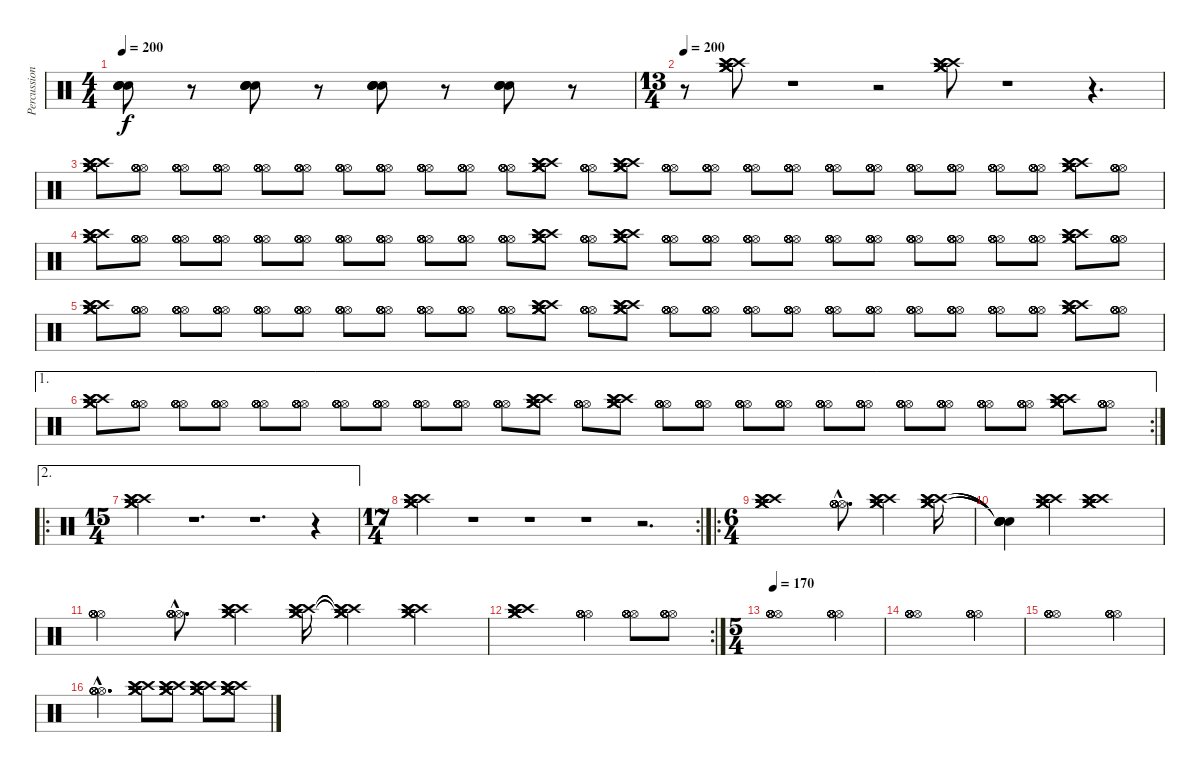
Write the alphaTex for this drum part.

\track ("Percussion" "Percussion") {instrument percussion}
\staff {score}
\articulation defaults
\ts (4 4)
\tempo 200
\clef neutral
\ks c
("Snare (hit) 2" "Snare (hit) 2" "Snare (hit) 2" "Snare (hit) 2").8{dy f} r.8 ("Snare (hit) 2" "Snare (hit) 2" "Snare (hit) 2" "Snare (hit) 2").8 r.8 ("Snare (hit) 2" "Snare (hit) 2" "Snare (hit) 2" "Snare (hit) 2").8 r.8 ("Snare (hit) 2" "Snare (hit) 2" "Snare (hit) 2" "Snare (hit) 2").8 r.8 |
\ts (13 4)
\tempo 200
r.8 ("Crash high (hit)" "Crash high (hit)" "Crash high (hit)" "Crash medium (hit)" "Crash medium (hit)" "Crash medium (hit)").8 r.1 r.2 ("Crash high (hit)" "Crash high (hit)" "Crash high (hit)" "Crash medium (hit)" "Crash medium (hit)" "Crash medium (hit)").8 r.1 r.4{d} |
("Crash high (hit)" "Crash high (hit)" "Crash high (hit)" "Crash medium (hit)" "Crash medium (hit)" "Crash medium (hit)").8 ("Hi-Hat (open)" "Hi-Hat (open)" "Hi-Hat (open)" "Hi-Hat (open)" "Hi-Hat (open)" "Hi-Hat (open)").8 ("Hi-Hat (open)" "Hi-Hat (open)" "Hi-Hat (open)" "Hi-Hat (open)" "Hi-Hat (open)" "Hi-Hat (open)").8 ("Hi-Hat (open)" "Hi-Hat (open)" "Hi-Hat (open)" "Hi-Hat (open)" "Hi-Hat (open)" "Hi-Hat (open)").8 ("Hi-Hat (open)" "Hi-Hat (open)" "Hi-Hat (open)" "Hi-Hat (open)" "Hi-Hat (open)" "Hi-Hat (open)").8 ("Hi-Hat (open)" "Hi-Hat (open)" "Hi-Hat (open)" "Hi-Hat (open)" "Hi-Hat (open)" "Hi-Hat (open)").8 ("Hi-Hat (open)" "Hi-Hat (open)" "Hi-Hat (open)" "Hi-Hat (open)" "Hi-Hat (open)" "Hi-Hat (open)").8 ("Hi-Hat (open)" "Hi-Hat (open)" "Hi-Hat (open)" "Hi-Hat (open)" "Hi-Hat (open)" "Hi-Hat (open)").8 ("Hi-Hat (open)" "Hi-Hat (open)" "Hi-Hat (open)" "Hi-Hat (open)" "Hi-Hat (open)" "Hi-Hat (open)").8 ("Hi-Hat (open)" "Hi-Hat (open)" "Hi-Hat (open)" "Hi-Hat (open)" "Hi-Hat (open)" "Hi-Hat (open)").8 ("Hi-Hat (open)" "Hi-Hat (open)" "Hi-Hat (open)" "Hi-Hat (open)" "Hi-Hat (open)" "Hi-Hat (open)").8 ("Crash high (hit)" "Crash high (hit)" "Crash high (hit)" "Crash medium (hit)" "Crash medium (hit)" "Crash medium (hit)").8 ("Hi-Hat (open)" "Hi-Hat (open)" "Hi-Hat (open)" "Hi-Hat (open)" "Hi-Hat (open)" "Hi-Hat (open)").8 ("Crash high (hit)" "Crash high (hit)" "Crash high (hit)" "Crash medium (hit)" "Crash medium (hit)" "Crash medium (hit)").8 ("Hi-Hat (open)" "Hi-Hat (open)" "Hi-Hat (open)" "Hi-Hat (open)" "Hi-Hat (open)" "Hi-Hat (open)").8 ("Hi-Hat (open)" "Hi-Hat (open)" "Hi-Hat (open)" "Hi-Hat (open)" "Hi-Hat (open)" "Hi-Hat (open)").8 ("Hi-Hat (open)" "Hi-Hat (open)" "Hi-Hat (open)" "Hi-Hat (open)" "Hi-Hat (open)" "Hi-Hat (open)").8 ("Hi-Hat (open)" "Hi-Hat (open)" "Hi-Hat (open)" "Hi-Hat (open)" "Hi-Hat (open)" "Hi-Hat (open)").8 ("Hi-Hat (open)" "Hi-Hat (open)" "Hi-Hat (open)" "Hi-Hat (open)" "Hi-Hat (open)" "Hi-Hat (open)").8 ("Hi-Hat (open)" "Hi-Hat (open)" "Hi-Hat (open)" "Hi-Hat (open)" "Hi-Hat (open)" "Hi-Hat (open)").8 ("Hi-Hat (open)" "Hi-Hat (open)" "Hi-Hat (open)" "Hi-Hat (open)" "Hi-Hat (open)" "Hi-Hat (open)").8 ("Hi-Hat (open)" "Hi-Hat (open)" "Hi-Hat (open)" "Hi-Hat (open)" "Hi-Hat (open)" "Hi-Hat (open)").8 ("Hi-Hat (open)" "Hi-Hat (open)" "Hi-Hat (open)" "Hi-Hat (open)" "Hi-Hat (open)" "Hi-Hat (open)").8 ("Hi-Hat (open)" "Hi-Hat (open)" "Hi-Hat (open)" "Hi-Hat (open)" "Hi-Hat (open)" "Hi-Hat (open)").8 ("Crash high (hit)" "Crash high (hit)" "Crash high (hit)" "Crash medium (hit)" "Crash medium (hit)" "Crash medium (hit)").8 ("Hi-Hat (open)" "Hi-Hat (open)" "Hi-Hat (open)" "Hi-Hat (open)" "Hi-Hat (open)" "Hi-Hat (open)").8 |
("Crash high (hit)" "Crash high (hit)" "Crash high (hit)" "Crash medium (hit)" "Crash medium (hit)" "Crash medium (hit)").8 ("Hi-Hat (open)" "Hi-Hat (open)" "Hi-Hat (open)" "Hi-Hat (open)" "Hi-Hat (open)" "Hi-Hat (open)").8 ("Hi-Hat (open)" "Hi-Hat (open)" "Hi-Hat (open)" "Hi-Hat (open)" "Hi-Hat (open)" "Hi-Hat (open)").8 ("Hi-Hat (open)" "Hi-Hat (open)" "Hi-Hat (open)" "Hi-Hat (open)" "Hi-Hat (open)" "Hi-Hat (open)").8 ("Hi-Hat (open)" "Hi-Hat (open)" "Hi-Hat (open)" "Hi-Hat (open)" "Hi-Hat (open)" "Hi-Hat (open)").8 ("Hi-Hat (open)" "Hi-Hat (open)" "Hi-Hat (open)" "Hi-Hat (open)" "Hi-Hat (open)" "Hi-Hat (open)").8 ("Hi-Hat (open)" "Hi-Hat (open)" "Hi-Hat (open)" "Hi-Hat (open)" "Hi-Hat (open)" "Hi-Hat (open)").8 ("Hi-Hat (open)" "Hi-Hat (open)" "Hi-Hat (open)" "Hi-Hat (open)" "Hi-Hat (open)" "Hi-Hat (open)").8 ("Hi-Hat (open)" "Hi-Hat (open)" "Hi-Hat (open)" "Hi-Hat (open)" "Hi-Hat (open)" "Hi-Hat (open)").8 ("Hi-Hat (open)" "Hi-Hat (open)" "Hi-Hat (open)" "Hi-Hat (open)" "Hi-Hat (open)" "Hi-Hat (open)").8 ("Hi-Hat (open)" "Hi-Hat (open)" "Hi-Hat (open)" "Hi-Hat (open)" "Hi-Hat (open)" "Hi-Hat (open)").8 ("Crash high (hit)" "Crash high (hit)" "Crash high (hit)" "Crash medium (hit)" "Crash medium (hit)" "Crash medium (hit)").8 ("Hi-Hat (open)" "Hi-Hat (open)" "Hi-Hat (open)" "Hi-Hat (open)" "Hi-Hat (open)" "Hi-Hat (open)").8 ("Crash high (hit)" "Crash high (hit)" "Crash high (hit)" "Crash medium (hit)" "Crash medium (hit)" "Crash medium (hit)").8 ("Hi-Hat (open)" "Hi-Hat (open)" "Hi-Hat (open)" "Hi-Hat (open)" "Hi-Hat (open)" "Hi-Hat (open)").8 ("Hi-Hat (open)" "Hi-Hat (open)" "Hi-Hat (open)" "Hi-Hat (open)" "Hi-Hat (open)" "Hi-Hat (open)").8 ("Hi-Hat (open)" "Hi-Hat (open)" "Hi-Hat (open)" "Hi-Hat (open)" "Hi-Hat (open)" "Hi-Hat (open)").8 ("Hi-Hat (open)" "Hi-Hat (open)" "Hi-Hat (open)" "Hi-Hat (open)" "Hi-Hat (open)" "Hi-Hat (open)").8 ("Hi-Hat (open)" "Hi-Hat (open)" "Hi-Hat (open)" "Hi-Hat (open)" "Hi-Hat (open)" "Hi-Hat (open)").8 ("Hi-Hat (open)" "Hi-Hat (open)" "Hi-Hat (open)" "Hi-Hat (open)" "Hi-Hat (open)" "Hi-Hat (open)").8 ("Hi-Hat (open)" "Hi-Hat (open)" "Hi-Hat (open)" "Hi-Hat (open)" "Hi-Hat (open)" "Hi-Hat (open)").8 ("Hi-Hat (open)" "Hi-Hat (open)" "Hi-Hat (open)" "Hi-Hat (open)" "Hi-Hat (open)" "Hi-Hat (open)").8 ("Hi-Hat (open)" "Hi-Hat (open)" "Hi-Hat (open)" "Hi-Hat (open)" "Hi-Hat (open)" "Hi-Hat (open)").8 ("Hi-Hat (open)" "Hi-Hat (open)" "Hi-Hat (open)" "Hi-Hat (open)" "Hi-Hat (open)" "Hi-Hat (open)").8 ("Crash high (hit)" "Crash high (hit)" "Crash high (hit)" "Crash medium (hit)" "Crash medium (hit)" "Crash medium (hit)").8 ("Hi-Hat (open)" "Hi-Hat (open)" "Hi-Hat (open)" "Hi-Hat (open)" "Hi-Hat (open)" "Hi-Hat (open)").8 |
("Crash high (hit)" "Crash high (hit)" "Crash high (hit)" "Crash medium (hit)" "Crash medium (hit)" "Crash medium (hit)").8 ("Hi-Hat (open)" "Hi-Hat (open)" "Hi-Hat (open)" "Hi-Hat (open)" "Hi-Hat (open)" "Hi-Hat (open)").8 ("Hi-Hat (open)" "Hi-Hat (open)" "Hi-Hat (open)" "Hi-Hat (open)" "Hi-Hat (open)" "Hi-Hat (open)").8 ("Hi-Hat (open)" "Hi-Hat (open)" "Hi-Hat (open)" "Hi-Hat (open)" "Hi-Hat (open)" "Hi-Hat (open)").8 ("Hi-Hat (open)" "Hi-Hat (open)" "Hi-Hat (open)" "Hi-Hat (open)" "Hi-Hat (open)" "Hi-Hat (open)").8 ("Hi-Hat (open)" "Hi-Hat (open)" "Hi-Hat (open)" "Hi-Hat (open)" "Hi-Hat (open)" "Hi-Hat (open)").8 ("Hi-Hat (open)" "Hi-Hat (open)" "Hi-Hat (open)" "Hi-Hat (open)" "Hi-Hat (open)" "Hi-Hat (open)").8 ("Hi-Hat (open)" "Hi-Hat (open)" "Hi-Hat (open)" "Hi-Hat (open)" "Hi-Hat (open)" "Hi-Hat (open)").8 ("Hi-Hat (open)" "Hi-Hat (open)" "Hi-Hat (open)" "Hi-Hat (open)" "Hi-Hat (open)" "Hi-Hat (open)").8 ("Hi-Hat (open)" "Hi-Hat (open)" "Hi-Hat (open)" "Hi-Hat (open)" "Hi-Hat (open)" "Hi-Hat (open)").8 ("Hi-Hat (open)" "Hi-Hat (open)" "Hi-Hat (open)" "Hi-Hat (open)" "Hi-Hat (open)" "Hi-Hat (open)").8 ("Crash high (hit)" "Crash high (hit)" "Crash high (hit)" "Crash medium (hit)" "Crash medium (hit)" "Crash medium (hit)").8 ("Hi-Hat (open)" "Hi-Hat (open)" "Hi-Hat (open)" "Hi-Hat (open)" "Hi-Hat (open)" "Hi-Hat (open)").8 ("Crash high (hit)" "Crash high (hit)" "Crash high (hit)" "Crash medium (hit)" "Crash medium (hit)" "Crash medium (hit)").8 ("Hi-Hat (open)" "Hi-Hat (open)" "Hi-Hat (open)" "Hi-Hat (open)" "Hi-Hat (open)" "Hi-Hat (open)").8 ("Hi-Hat (open)" "Hi-Hat (open)" "Hi-Hat (open)" "Hi-Hat (open)" "Hi-Hat (open)" "Hi-Hat (open)").8 ("Hi-Hat (open)" "Hi-Hat (open)" "Hi-Hat (open)" "Hi-Hat (open)" "Hi-Hat (open)" "Hi-Hat (open)").8 ("Hi-Hat (open)" "Hi-Hat (open)" "Hi-Hat (open)" "Hi-Hat (open)" "Hi-Hat (open)" "Hi-Hat (open)").8 ("Hi-Hat (open)" "Hi-Hat (open)" "Hi-Hat (open)" "Hi-Hat (open)" "Hi-Hat (open)" "Hi-Hat (open)").8 ("Hi-Hat (open)" "Hi-Hat (open)" "Hi-Hat (open)" "Hi-Hat (open)" "Hi-Hat (open)" "Hi-Hat (open)").8 ("Hi-Hat (open)" "Hi-Hat (open)" "Hi-Hat (open)" "Hi-Hat (open)" "Hi-Hat (open)" "Hi-Hat (open)").8 ("Hi-Hat (open)" "Hi-Hat (open)" "Hi-Hat (open)" "Hi-Hat (open)" "Hi-Hat (open)" "Hi-Hat (open)").8 ("Hi-Hat (open)" "Hi-Hat (open)" "Hi-Hat (open)" "Hi-Hat (open)" "Hi-Hat (open)" "Hi-Hat (open)").8 ("Hi-Hat (open)" "Hi-Hat (open)" "Hi-Hat (open)" "Hi-Hat (open)" "Hi-Hat (open)" "Hi-Hat (open)").8 ("Crash high (hit)" "Crash high (hit)" "Crash high (hit)" "Crash medium (hit)" "Crash medium (hit)" "Crash medium (hit)").8 ("Hi-Hat (open)" "Hi-Hat (open)" "Hi-Hat (open)" "Hi-Hat (open)" "Hi-Hat (open)" "Hi-Hat (open)").8 |
\ae 1
\rc 2
("Crash high (hit)" "Crash high (hit)" "Crash high (hit)" "Crash medium (hit)" "Crash medium (hit)" "Crash medium (hit)").8 ("Hi-Hat (open)" "Hi-Hat (open)" "Hi-Hat (open)" "Hi-Hat (open)" "Hi-Hat (open)" "Hi-Hat (open)").8 ("Hi-Hat (open)" "Hi-Hat (open)" "Hi-Hat (open)" "Hi-Hat (open)" "Hi-Hat (open)" "Hi-Hat (open)").8 ("Hi-Hat (open)" "Hi-Hat (open)" "Hi-Hat (open)" "Hi-Hat (open)" "Hi-Hat (open)" "Hi-Hat (open)").8 ("Hi-Hat (open)" "Hi-Hat (open)" "Hi-Hat (open)" "Hi-Hat (open)" "Hi-Hat (open)" "Hi-Hat (open)").8 ("Hi-Hat (open)" "Hi-Hat (open)" "Hi-Hat (open)" "Hi-Hat (open)" "Hi-Hat (open)" "Hi-Hat (open)").8 ("Hi-Hat (open)" "Hi-Hat (open)" "Hi-Hat (open)" "Hi-Hat (open)" "Hi-Hat (open)" "Hi-Hat (open)").8 ("Hi-Hat (open)" "Hi-Hat (open)" "Hi-Hat (open)" "Hi-Hat (open)" "Hi-Hat (open)" "Hi-Hat (open)").8 ("Hi-Hat (open)" "Hi-Hat (open)" "Hi-Hat (open)" "Hi-Hat (open)" "Hi-Hat (open)" "Hi-Hat (open)").8 ("Hi-Hat (open)" "Hi-Hat (open)" "Hi-Hat (open)" "Hi-Hat (open)" "Hi-Hat (open)" "Hi-Hat (open)").8 ("Hi-Hat (open)" "Hi-Hat (open)" "Hi-Hat (open)" "Hi-Hat (open)" "Hi-Hat (open)" "Hi-Hat (open)").8 ("Crash high (hit)" "Crash high (hit)" "Crash high (hit)" "Crash medium (hit)" "Crash medium (hit)" "Crash medium (hit)").8 ("Hi-Hat (open)" "Hi-Hat (open)" "Hi-Hat (open)" "Hi-Hat (open)" "Hi-Hat (open)" "Hi-Hat (open)").8 ("Crash high (hit)" "Crash high (hit)" "Crash high (hit)" "Crash medium (hit)" "Crash medium (hit)" "Crash medium (hit)").8 ("Hi-Hat (open)" "Hi-Hat (open)" "Hi-Hat (open)" "Hi-Hat (open)" "Hi-Hat (open)" "Hi-Hat (open)").8 ("Hi-Hat (open)" "Hi-Hat (open)" "Hi-Hat (open)" "Hi-Hat (open)" "Hi-Hat (open)" "Hi-Hat (open)").8 ("Hi-Hat (open)" "Hi-Hat (open)" "Hi-Hat (open)" "Hi-Hat (open)" "Hi-Hat (open)" "Hi-Hat (open)").8 ("Hi-Hat (open)" "Hi-Hat (open)" "Hi-Hat (open)" "Hi-Hat (open)" "Hi-Hat (open)" "Hi-Hat (open)").8 ("Hi-Hat (open)" "Hi-Hat (open)" "Hi-Hat (open)" "Hi-Hat (open)" "Hi-Hat (open)" "Hi-Hat (open)").8 ("Hi-Hat (open)" "Hi-Hat (open)" "Hi-Hat (open)" "Hi-Hat (open)" "Hi-Hat (open)" "Hi-Hat (open)").8 ("Hi-Hat (open)" "Hi-Hat (open)" "Hi-Hat (open)" "Hi-Hat (open)" "Hi-Hat (open)" "Hi-Hat (open)").8 ("Hi-Hat (open)" "Hi-Hat (open)" "Hi-Hat (open)" "Hi-Hat (open)" "Hi-Hat (open)" "Hi-Hat (open)").8 ("Hi-Hat (open)" "Hi-Hat (open)" "Hi-Hat (open)" "Hi-Hat (open)" "Hi-Hat (open)" "Hi-Hat (open)").8 ("Hi-Hat (open)" "Hi-Hat (open)" "Hi-Hat (open)" "Hi-Hat (open)" "Hi-Hat (open)" "Hi-Hat (open)").8 ("Crash high (hit)" "Crash high (hit)" "Crash high (hit)" "Crash medium (hit)" "Crash medium (hit)" "Crash medium (hit)").8 ("Hi-Hat (open)" "Hi-Hat (open)" "Hi-Hat (open)" "Hi-Hat (open)" "Hi-Hat (open)" "Hi-Hat (open)").8 |
\ae 2
\ro
\ts (15 4)
("Crash high (hit)" "Crash high (hit)" "Crash high (hit)" "Crash medium (hit)" "Crash medium (hit)" "Crash medium (hit)").2 r.1{d} r.1{d} r.4 |
\rc 2
\ts (17 4)
("Crash high (hit)" "Crash high (hit)" "Crash high (hit)" "Crash medium (hit)" "Crash medium (hit)" "Crash medium (hit)").2 r.1 r.1 r.1 r.2{d} |
\ro
\ts (6 4)
("Crash high (hit)" "Crash high (hit)" "Crash high (hit)" "Crash medium (hit)" "Crash medium (hit)" "Crash medium (hit)").1 ("Hi-Hat (open)"{hac} "Hi-Hat (open)"{hac} "Hi-Hat (open)"{hac} "Hi-Hat (open)"{hac} "Hi-Hat (open)"{hac} "Hi-Hat (open)"{hac}).8{d} ("Crash high (hit)" "Crash high (hit)" "Crash high (hit)" "Crash medium (hit)" "Crash medium (hit)" "Crash medium (hit)").4 ("Crash high (hit)" "Crash high (hit)" "Crash high (hit)" "Crash medium (hit)" "Crash medium (hit)" "Crash medium (hit)").16 |
("Snare (hit)"{t} "Snare (hit)"{t} "Snare (hit)"{t} "Snare (hit)"{t} "Snare (hit)"{t} "Snare (hit)"{t}).4 ("Crash high (hit)" "Crash high (hit)" "Crash high (hit)" "Crash medium (hit)" "Crash medium (hit)" "Crash medium (hit)").4 ("Crash high (hit)" "Crash high (hit)" "Crash high (hit)" "Crash medium (hit)" "Crash medium (hit)" "Crash medium (hit)").1 |
("Hi-Hat (open)" "Hi-Hat (open)" "Hi-Hat (open)" "Hi-Hat (open)" "Hi-Hat (open)" "Hi-Hat (open)").2 ("Hi-Hat (open)"{hac} "Hi-Hat (open)"{hac} "Hi-Hat (open)"{hac} "Hi-Hat (open)"{hac} "Hi-Hat (open)"{hac} "Hi-Hat (open)"{hac}).8{d} ("Crash high (hit)" "Crash high (hit)" "Crash high (hit)" "Crash medium (hit)" "Crash medium (hit)" "Crash medium (hit)").4 ("Crash high (hit)" "Crash high (hit)" "Crash high (hit)" "Crash medium (hit)" "Crash medium (hit)" "Crash medium (hit)").16 ("Crash high (hit)"{t} "Crash high (hit)"{t} "Crash high (hit)"{t} "Crash medium (hit)"{t} "Crash medium (hit)"{t} "Crash medium (hit)"{t}).4 ("Crash high (hit)" "Crash high (hit)" "Crash high (hit)" "Crash medium (hit)" "Crash medium (hit)" "Crash medium (hit)").4 |
\rc 2
("Crash high (hit)" "Crash high (hit)" "Crash high (hit)" "Crash medium (hit)" "Crash medium (hit)" "Crash medium (hit)").1 ("Hi-Hat (open)" "Hi-Hat (open)" "Hi-Hat (open)" "Hi-Hat (open)" "Hi-Hat (open)" "Hi-Hat (open)").4 ("Hi-Hat (open)" "Hi-Hat (open)" "Hi-Hat (open)" "Hi-Hat (open)" "Hi-Hat (open)" "Hi-Hat (open)").8 ("Hi-Hat (open)" "Hi-Hat (open)" "Hi-Hat (open)" "Hi-Hat (open)" "Hi-Hat (open)" "Hi-Hat (open)").8 |
\ts (5 4)
\tempo 170
("Hi-Hat (open)" "Hi-Hat (open)" "Hi-Hat (open)" "Hi-Hat (open)" "Hi-Hat (open)" "Hi-Hat (open)").1 ("Hi-Hat (open)" "Hi-Hat (open)" "Hi-Hat (open)" "Hi-Hat (open)" "Hi-Hat (open)" "Hi-Hat (open)").4 |
("Hi-Hat (open)" "Hi-Hat (open)" "Hi-Hat (open)" "Hi-Hat (open)" "Hi-Hat (open)" "Hi-Hat (open)").1 ("Hi-Hat (open)" "Hi-Hat (open)" "Hi-Hat (open)" "Hi-Hat (open)" "Hi-Hat (open)" "Hi-Hat (open)").4 |
("Hi-Hat (open)" "Hi-Hat (open)" "Hi-Hat (open)" "Hi-Hat (open)" "Hi-Hat (open)" "Hi-Hat (open)").1 ("Hi-Hat (open)" "Hi-Hat (open)" "Hi-Hat (open)" "Hi-Hat (open)" "Hi-Hat (open)" "Hi-Hat (open)").4 |
("Hi-Hat (open)"{hac} "Hi-Hat (open)"{hac} "Hi-Hat (open)"{hac} "Hi-Hat (open)"{hac} "Hi-Hat (open)"{hac} "Hi-Hat (open)"{hac}).2{d} ("Crash high (hit)" "Crash high (hit)" "Crash high (hit)" "Crash medium (hit)" "Crash medium (hit)" "Crash medium (hit)").8 ("Crash high (hit)" "Crash high (hit)" "Crash high (hit)" "Crash medium (hit)" "Crash medium (hit)" "Crash medium (hit)").8 ("Crash high (hit)" "Crash high (hit)" "Crash high (hit)" "Crash medium (hit)" "Crash medium (hit)" "Crash medium (hit)").8 ("Crash high (hit)" "Crash high (hit)" "Crash high (hit)" "Crash medium (hit)" "Crash medium (hit)" "Crash medium (hit)").8
